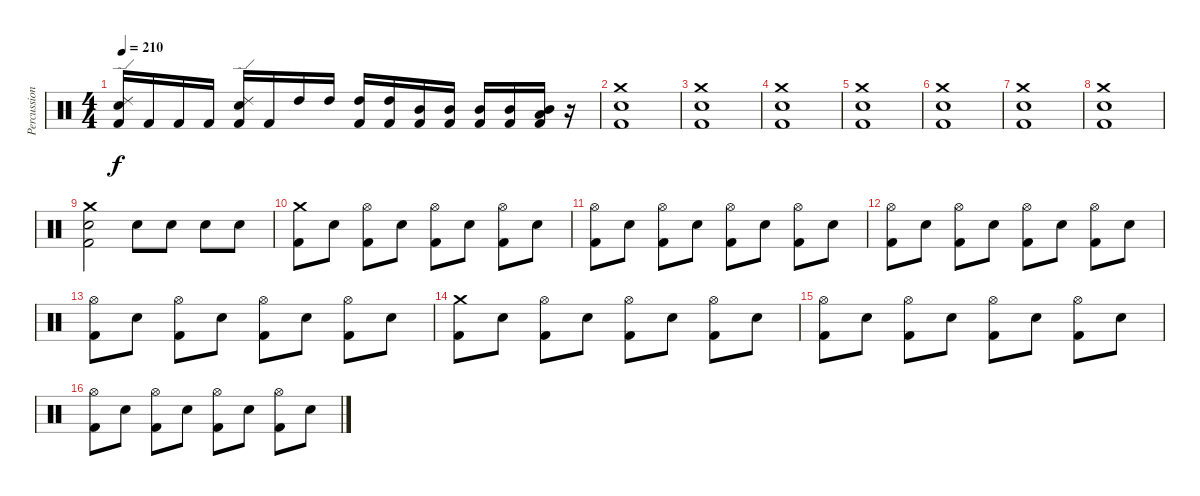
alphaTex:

\track ("Percussion" "Percussion") {instrument percussion}
\staff {score}
\articulation defaults
\ts (4 4)
\tempo 210
\clef neutral
\ks c
("Ride (edge) 2" "Electric Snare (hit)" "Kick (hit) 2").16{dy f} "Kick (hit) 2".16 "Kick (hit) 2".16 "Kick (hit) 2".16 ("Ride (edge) 2" "Electric Snare (hit)" "Kick (hit) 2").16 "Kick (hit) 2".16 "High Tom (hit)".16 "High Tom (hit)".16 ("High Tom (hit)" "Kick (hit) 2").16 ("High Tom (hit)" "Kick (hit) 2").16 ("Mid Tom (hit)" "Kick (hit) 2").16 ("Mid Tom (hit)" "Kick (hit) 2").16 ("Mid Tom (hit)" "Kick (hit) 2").16 ("Mid Tom (hit)" "Kick (hit) 2").16 ("Mid Tom (hit)" "Low Tom (hit)" "Kick (hit) 2").16 r.16 |
("Crash medium (hit)" "Electric Snare (hit)" "Kick (hit) 2").1 |
("Crash medium (hit)" "Electric Snare (hit)" "Kick (hit) 2").1 |
("Crash medium (hit)" "Electric Snare (hit)" "Kick (hit) 2").1 |
("Crash medium (hit)" "Electric Snare (hit)" "Kick (hit) 2").1 |
("Crash medium (hit)" "Electric Snare (hit)" "Kick (hit) 2").1 |
("Crash medium (hit)" "Electric Snare (hit)" "Kick (hit) 2").1 |
("Crash medium (hit)" "Electric Snare (hit)" "Kick (hit) 2").1 |
("Crash medium (hit)" "Electric Snare (hit)" "Kick (hit) 2").2 "Electric Snare (hit)".8 "Electric Snare (hit)".8 "Electric Snare (hit)".8 "Electric Snare (hit)".8 |
("Crash medium (hit)" "Kick (hit) 2").8 "Electric Snare (hit)".8 ("Hi-Hat (open)" "Kick (hit) 2").8 "Electric Snare (hit)".8 ("Hi-Hat (open)" "Kick (hit) 2").8 "Electric Snare (hit)".8 ("Hi-Hat (open)" "Kick (hit) 2").8 "Electric Snare (hit)".8 |
("Hi-Hat (open)" "Kick (hit) 2").8 "Electric Snare (hit)".8 ("Hi-Hat (open)" "Kick (hit) 2").8 "Electric Snare (hit)".8 ("Hi-Hat (open)" "Kick (hit) 2").8 "Electric Snare (hit)".8 ("Hi-Hat (open)" "Kick (hit) 2").8 "Electric Snare (hit)".8 |
("Hi-Hat (open)" "Kick (hit) 2").8 "Electric Snare (hit)".8 ("Hi-Hat (open)" "Kick (hit) 2").8 "Electric Snare (hit)".8 ("Hi-Hat (open)" "Kick (hit) 2").8 "Electric Snare (hit)".8 ("Hi-Hat (open)" "Kick (hit) 2").8 "Electric Snare (hit)".8 |
("Hi-Hat (open)" "Kick (hit) 2").8 "Electric Snare (hit)".8 ("Hi-Hat (open)" "Kick (hit) 2").8 "Electric Snare (hit)".8 ("Hi-Hat (open)" "Kick (hit) 2").8 "Electric Snare (hit)".8 ("Hi-Hat (open)" "Kick (hit) 2").8 "Electric Snare (hit)".8 |
("Crash medium (hit)" "Kick (hit) 2").8 "Electric Snare (hit)".8 ("Hi-Hat (open)" "Kick (hit) 2").8 "Electric Snare (hit)".8 ("Hi-Hat (open)" "Kick (hit) 2").8 "Electric Snare (hit)".8 ("Hi-Hat (open)" "Kick (hit) 2").8 "Electric Snare (hit)".8 |
("Hi-Hat (open)" "Kick (hit) 2").8 "Electric Snare (hit)".8 ("Hi-Hat (open)" "Kick (hit) 2").8 "Electric Snare (hit)".8 ("Hi-Hat (open)" "Kick (hit) 2").8 "Electric Snare (hit)".8 ("Hi-Hat (open)" "Kick (hit) 2").8 "Electric Snare (hit)".8 |
("Hi-Hat (open)" "Kick (hit) 2").8 "Electric Snare (hit)".8 ("Hi-Hat (open)" "Kick (hit) 2").8 "Electric Snare (hit)".8 ("Hi-Hat (open)" "Kick (hit) 2").8 "Electric Snare (hit)".8 ("Hi-Hat (open)" "Kick (hit) 2").8 "Electric Snare (hit)".8
